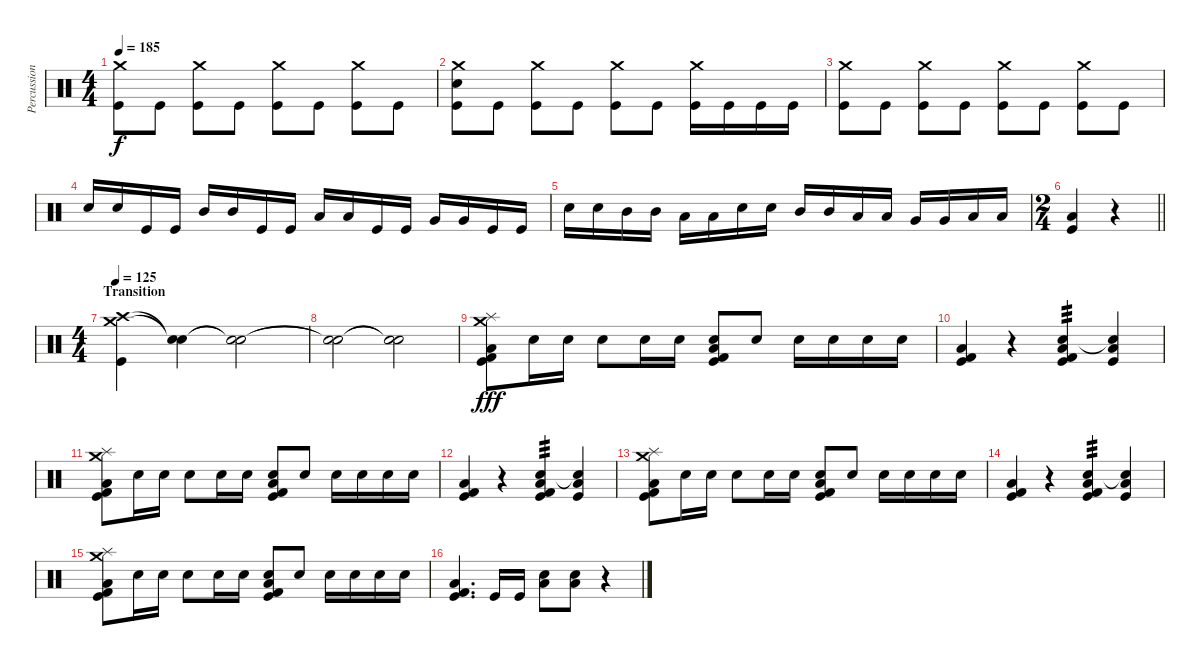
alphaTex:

\track ("Percussion" "Percussion") {instrument percussion}
\staff {score}
\articulation defaults
\ts (4 4)
\tempo 185
\clef neutral
\ks c
("Crash medium (hit)" "Kick (hit)").8{dy f} "Kick (hit)".8 ("Crash medium (hit)" "Kick (hit)").8 "Kick (hit)".8 ("Crash medium (hit)" "Kick (hit)").8 "Kick (hit)".8 ("Crash medium (hit)" "Kick (hit)").8 "Kick (hit)".8 |
("Crash medium (hit)" "Snare (hit) 2" "Kick (hit)").8 "Kick (hit)".8 ("Crash medium (hit)" "Kick (hit)").8 "Kick (hit)".8 ("Crash medium (hit)" "Kick (hit)").8 "Kick (hit)".8 ("Crash medium (hit)" "Kick (hit)").16 "Kick (hit)".16 "Kick (hit)".16 "Kick (hit)".16 |
("Crash medium (hit)" "Kick (hit)").8 "Kick (hit)".8 ("Crash medium (hit)" "Kick (hit)").8 "Kick (hit)".8 ("Crash medium (hit)" "Kick (hit)").8 "Kick (hit)".8 ("Crash medium (hit)" "Kick (hit)").8 "Kick (hit)".8 |
"Snare (hit) 2".16 "Snare (hit) 2".16 "Kick (hit)".16 "Kick (hit)".16 "Mid Tom (hit)".16 "Mid Tom (hit)".16 "Kick (hit)".16 "Kick (hit)".16 "Low Tom (hit)".16 "Low Tom (hit)".16 "Kick (hit)".16 "Kick (hit)".16 "Very Low Tom (hit)".16 "Very Low Tom (hit)".16 "Kick (hit)".16 "Kick (hit)".16 |
"Snare (hit) 2".16 "Snare (hit) 2".16 "Mid Tom (hit)".16 "Mid Tom (hit)".16 "Low Tom (hit)".16 "Low Tom (hit)".16 "Snare (hit) 2".16 "Snare (hit) 2".16 "Mid Tom (hit)".16 "Mid Tom (hit)".16 "Low Tom (hit)".16 "Low Tom (hit)".16 "Very Low Tom (hit)".16 "Very Low Tom (hit)".16 "Low Floor Tom (hit)".16 "Low Floor Tom (hit)".16 |
\ts (2 4)
\barLineRight lightlight
("Low Floor Tom (hit)" "Kick (hit)").4 r.4 |
\ts (4 4)
\section ("" "Transition")
\tempo 125
("Crash medium (hit)" "Crash high (hit)" "Kick (hit)").4 ("Snare (hit)"{t} "Snare (hit)"{t}).4 ("Snare (hit)"{t} "Snare (hit)"{t}).2 |
("Snare (hit)"{t} "Snare (hit)"{t}).2 ("Snare (hit)"{t} "Snare (hit)"{t}).2 |
("Crash medium (hit)" "Splash (hit)" "Low Floor Tom (hit)" "Kick (hit)" "Kick (hit) 2").8{dy fff volume 7} "Snare (hit) 2".16 "Snare (hit) 2".16 "Snare (hit) 2".8 "Snare (hit) 2".16 "Snare (hit) 2".16 ("Low Floor Tom (hit)" "Kick (hit)" "Snare (hit) 2" "Kick (hit) 2").8 "Snare (hit) 2".8 "Snare (hit) 2".16 "Snare (hit) 2".16 "Snare (hit) 2".16 "Snare (hit) 2".16 |
("Low Floor Tom (hit)" "Kick (hit)" "Kick (hit) 2").4 r.4 ("Low Floor Tom (hit)" "Kick (hit)" "Snare (hit) 2" "Kick (hit) 2").4{tp 3} ("Low Floor Tom (hit)" "Kick (hit)" "Snare (hit)"{t}).4 |
("Crash medium (hit)" "Splash (hit)" "Low Floor Tom (hit)" "Kick (hit)" "Kick (hit) 2").8 "Snare (hit) 2".16 "Snare (hit) 2".16 "Snare (hit) 2".8 "Snare (hit) 2".16 "Snare (hit) 2".16 ("Low Floor Tom (hit)" "Kick (hit)" "Snare (hit) 2" "Kick (hit) 2").8 "Snare (hit) 2".8 "Snare (hit) 2".16 "Snare (hit) 2".16 "Snare (hit) 2".16 "Snare (hit) 2".16 |
("Low Floor Tom (hit)" "Kick (hit)" "Kick (hit) 2").4 r.4 ("Low Floor Tom (hit)" "Kick (hit)" "Snare (hit) 2" "Kick (hit) 2").4{tp 3} ("Low Floor Tom (hit)" "Kick (hit)" "Snare (hit)"{t}).4 |
("Crash medium (hit)" "Splash (hit)" "Low Floor Tom (hit)" "Kick (hit)" "Kick (hit) 2").8 "Snare (hit) 2".16 "Snare (hit) 2".16 "Snare (hit) 2".8 "Snare (hit) 2".16 "Snare (hit) 2".16 ("Low Floor Tom (hit)" "Kick (hit)" "Snare (hit) 2" "Kick (hit) 2").8 "Snare (hit) 2".8 "Snare (hit) 2".16 "Snare (hit) 2".16 "Snare (hit) 2".16 "Snare (hit) 2".16 |
("Low Floor Tom (hit)" "Kick (hit)" "Kick (hit) 2").4 r.4 ("Low Floor Tom (hit)" "Kick (hit)" "Snare (hit) 2" "Kick (hit) 2").4{tp 3} ("Low Floor Tom (hit)" "Kick (hit)" "Snare (hit)"{t}).4 |
("Crash medium (hit)" "Splash (hit)" "Low Floor Tom (hit)" "Kick (hit)" "Kick (hit) 2").8 "Snare (hit) 2".16 "Snare (hit) 2".16 "Snare (hit) 2".8 "Snare (hit) 2".16 "Snare (hit) 2".16 ("Low Floor Tom (hit)" "Kick (hit)" "Snare (hit) 2" "Kick (hit) 2").8 "Snare (hit) 2".8 "Snare (hit) 2".16 "Snare (hit) 2".16 "Snare (hit) 2".16 "Snare (hit) 2".16 |
("Low Floor Tom (hit)" "Kick (hit)" "Kick (hit) 2").4{d} "Kick (hit)".16{volume 13} "Kick (hit)".16 ("Low Floor Tom (hit)" "Snare (hit) 2").8 ("Low Floor Tom (hit)" "Snare (hit) 2").8 r.4
